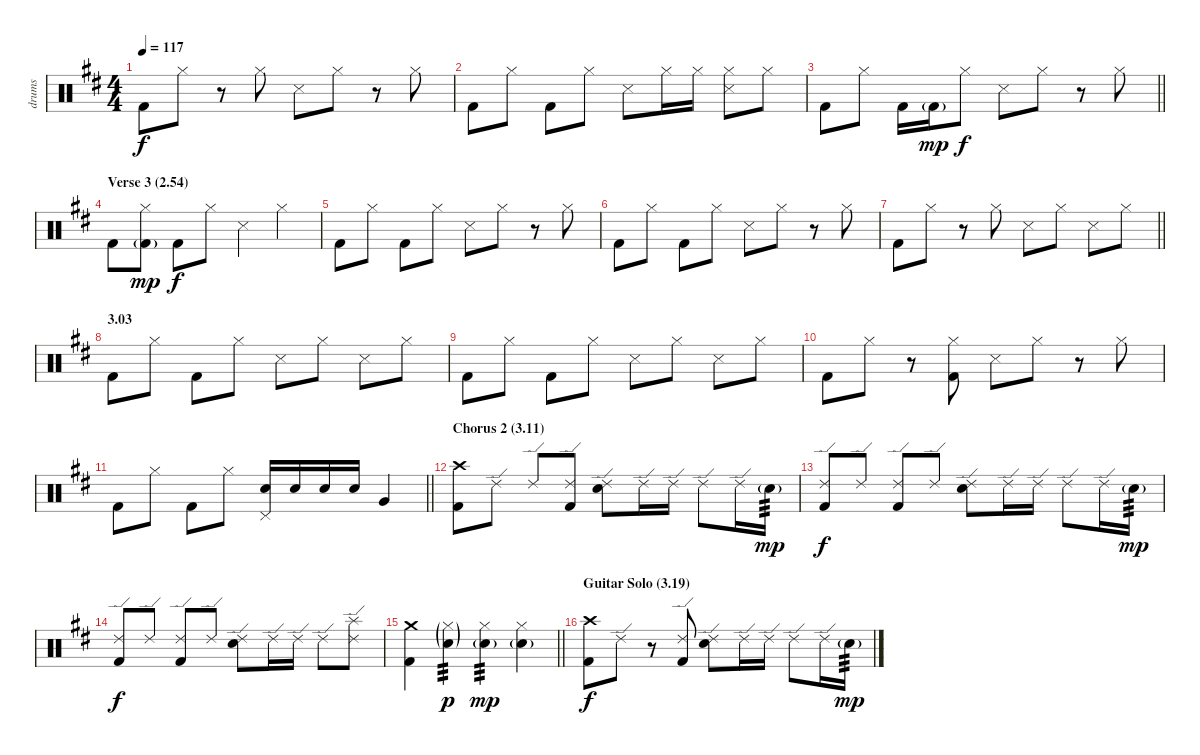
\track ("drums" "drums") {instrument percussion}
\staff {score}
\articulation defaults
\ts (4 4)
\tempo 117
\clef neutral
\ks d "Kick (hit) 2".8{dy f} "Hi-Hat (closed)".8
r.8 "Hi-Hat (closed)".8 "Snare (side stick) 3".8 "Hi-Hat (closed)".8 r.8 "Hi-Hat (closed)".8 |
"Kick (hit) 2".8 "Hi-Hat (closed)".8 "Kick (hit) 2".8 "Hi-Hat (closed)".8 "Snare (side stick) 3".8 "Hi-Hat (closed)".16 "Hi-Hat (closed)".16 ("Hi-Hat (closed)" "Snare (side stick) 3").8 "Hi-Hat (closed)".8 |
\barLineRight lightlight "Kick (hit) 2".8 "Hi-Hat (closed)".8 "Kick (hit) 2".16 "Kick (hit) 2"{g}.16{dy mp} "Hi-Hat (closed)".8{dy f} "Snare (side stick) 3".8 "Hi-Hat (closed)".8
r.8 "Hi-Hat (closed)".8 |
\section ("" "Verse 3 (2.54)")
"Kick (hit) 2".8 ("Hi-Hat (closed)" "Kick (hit) 2"{g}).8{dy mp} "Kick (hit) 2".8{dy f} "Hi-Hat (closed)".8 "Snare (side stick) 3".4 "Hi-Hat (closed)".4 |
"Kick (hit) 2".8 "Hi-Hat (closed)".8 "Kick (hit) 2".8 "Hi-Hat (closed)".8 "Snare (side stick) 3".8 "Hi-Hat (closed)".8 r.8 "Hi-Hat (closed)".8 |
"Kick (hit) 2".8 "Hi-Hat (closed)".8 "Kick (hit) 2".8 "Hi-Hat (closed)".8 "Snare (side stick) 3".8 "Hi-Hat (closed)".8 r.8 "Hi-Hat (closed)".8 |
\barLineRight lightlight "Kick (hit) 2".8 "Hi-Hat (closed)".8
r.8 "Hi-Hat (closed)".8 "Snare (side stick) 3".8 "Hi-Hat (closed)".8 "Snare (side stick) 3".8 "Hi-Hat (closed)".8 |
\section ("" "3.03")
"Kick (hit) 2".8 "Hi-Hat (closed)".8 "Kick (hit) 2".8 "Hi-Hat (closed)".8 "Snare (side stick) 3".8 "Hi-Hat (closed)".8 "Snare (side stick) 3".8 "Hi-Hat (closed)".8 |
"Kick (hit) 2".8 "Hi-Hat (closed)".8 "Kick (hit) 2".8 "Hi-Hat (closed)".8 "Snare (side stick) 3".8 "Hi-Hat (closed)".8 "Snare (side stick) 3".8 "Hi-Hat (closed)".8 |
"Kick (hit) 2".8 "Hi-Hat (closed)".8 r.8 ("Hi-Hat (closed)" "Kick (hit) 2").8 "Snare (side stick) 3".8 "Hi-Hat (closed)".8 r.8 "Hi-Hat (closed)".8 |
\barLineRight lightlight "Kick (hit) 2".8 "Hi-Hat (closed)".8 "Kick (hit) 2".8 "Hi-Hat (closed)".8
("Pedal Hi-Hat (hit)" "Electric Snare (hit)").16 "Electric Snare (hit)".16 "Electric Snare (hit)".16 "Electric Snare (hit)".16 "Very Low Tom (hit)".4 |
\section ("" "Chorus 2 (3.11)")
("Crash high (hit)" "Kick (hit) 2").8 "Ride (edge) 2".8 "Ride (edge) 2".8 ("Ride (edge) 2" "Kick (hit) 2").8 ("Ride (edge) 2" "Electric Snare (hit)").8 "Ride (edge) 2".16 "Ride (edge) 2".16 "Ride (edge) 2".8 "Ride (edge) 2".16 "Electric Snare (hit)"{g}.16{tp 3 dy mp} |
("Ride (edge) 2" "Kick (hit) 2").8{dy f} "Ride (edge) 2".8 ("Ride (edge) 2" "Kick (hit) 2").8 "Ride (edge) 2".8 ("Ride (edge) 2" "Electric Snare (hit)").8 "Ride (edge) 2".16 "Ride (edge) 2".16 "Ride (edge) 2".8 "Ride (edge) 2".16 "Electric Snare (hit)"{g}.16{tp 3 dy mp} |
("Ride (edge) 2" "Kick (hit) 2").8{dy f} "Ride (edge) 2".8 ("Ride (edge) 2" "Kick (hit) 2").8 "Ride (edge) 2".8 ("Ride (edge) 2" "Electric Snare (hit)").8 "Ride (edge) 2".16 "Ride (edge) 2".16 "Ride (edge) 2".8 ("Ride (edge) 2" "Splash (hit)").8 |
\barLineRight lightlight
("Crash medium (hit)" "Kick (hit) 2").4 ("Hi-Hat (closed)"{g} "Electric Snare (hit)"{g}).4{tp 3 dy p} ("Hi-Hat (closed)" "Electric Snare (hit)"{g}).4{tp 3 dy mp} ("Hi-Hat (closed)" "Electric Snare (hit)"{g}).4 |
\section ("" "Guitar Solo (3.19)")
("Crash high (hit)" "Kick (hit) 2").8{dy f} "Ride (edge) 2".8 r.8 ("Ride (edge) 2" "Kick (hit) 2").8 ("Ride (edge) 2" "Electric Snare (hit)").8 "Ride (edge) 2".16 "Ride (edge) 2".16 "Ride (edge) 2".8 "Ride (edge) 2".16 "Electric Snare (hit)"{g}.16{tp 3 dy mp}
